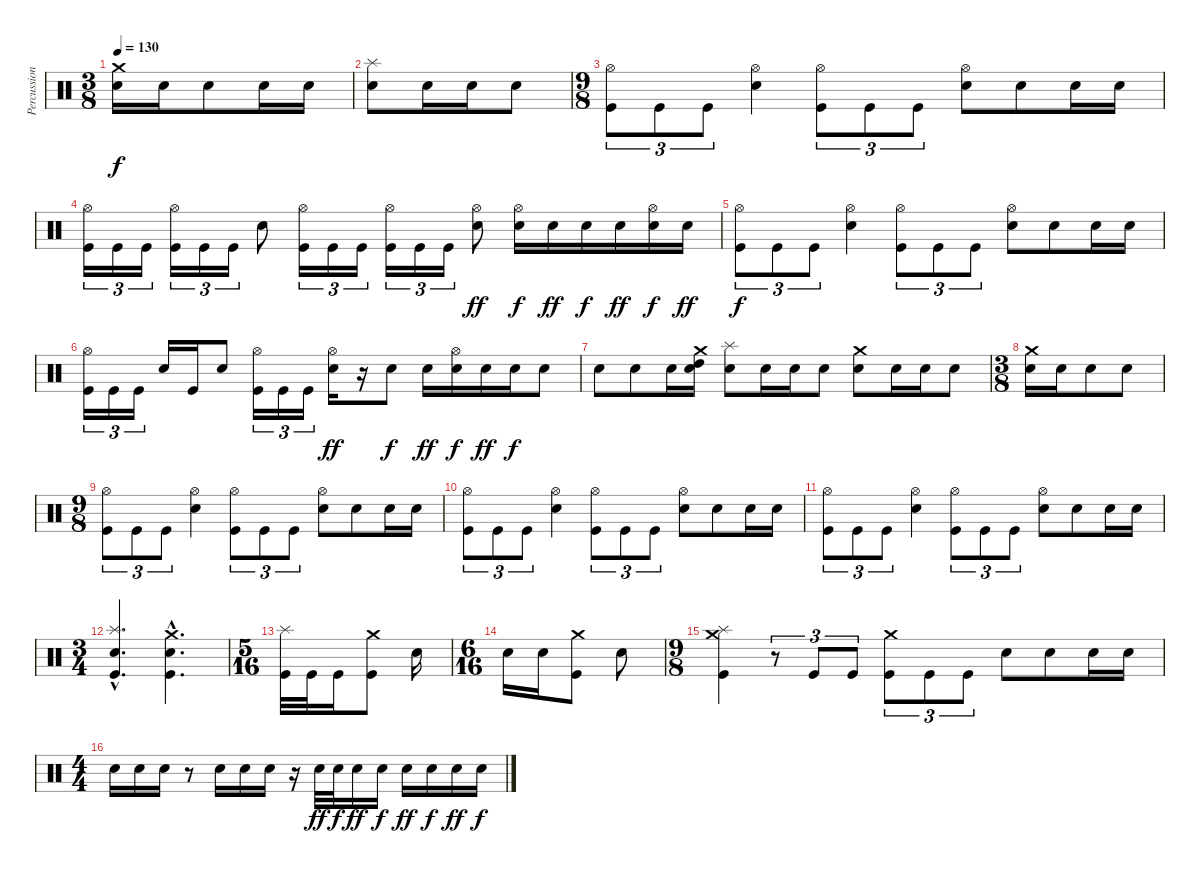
\track ("Percussioni" "Percussion") {instrument percussion}
\staff {score}
\articulation defaults
\ts (3 8)
\tempo 130
\clef neutral
\ks c
("Crash medium (hit)" "Snare (hit) 2").16{dy f} "Snare (hit) 2".16 "Snare (hit) 2".8 "Snare (hit) 2".16 "Snare (hit) 2".16 |
("Splash (hit)" "Snare (hit) 2").8 "Snare (hit) 2".16 "Snare (hit) 2".16 "Snare (hit) 2".8 |
\ts (9 8)
("Hi-Hat (open)" "Kick (hit)").8{tu (3 2)} "Kick (hit)".8{tu (3 2)} "Kick (hit)".8{tu (3 2)} ("Hi-Hat (open)" "Snare (hit) 2").4 ("Hi-Hat (open)" "Kick (hit)").8{tu (3 2)} "Kick (hit)".8{tu (3 2)} "Kick (hit)".8{tu (3 2)} ("Hi-Hat (open)" "Snare (hit) 2").8 "Snare (hit) 2".8 "Snare (hit) 2".16 "Snare (hit) 2".16 |
("Hi-Hat (open)" "Kick (hit)").16{tu (3 2)} "Kick (hit)".16{tu (3 2)} "Kick (hit)".16{tu (3 2)} ("Hi-Hat (open)" "Kick (hit)").16{tu (3 2)} "Kick (hit)".16{tu (3 2)} "Kick (hit)".16{tu (3 2)} "Snare (hit) 2".8 ("Hi-Hat (open)" "Kick (hit)").16{tu (3 2)} "Kick (hit)".16{tu (3 2)} "Kick (hit)".16{tu (3 2)} ("Hi-Hat (open)" "Kick (hit)").16{tu (3 2)} "Kick (hit)".16{tu (3 2)} "Kick (hit)".16{tu (3 2)} ("Hi-Hat (open)" "Snare (hit) 2").8{dy ff} ("Hi-Hat (open)" "Snare (hit) 2").16{dy f} "Snare (hit) 2".16{dy ff} "Snare (hit) 2".16{dy f} "Snare (hit) 2".16{dy ff} ("Hi-Hat (open)" "Snare (hit) 2").16{dy f} "Snare (hit) 2".16{dy ff} |
("Hi-Hat (open)" "Kick (hit)").8{tu (3 2) dy f} "Kick (hit)".8{tu (3 2)} "Kick (hit)".8{tu (3 2)} ("Hi-Hat (open)" "Snare (hit) 2").4 ("Hi-Hat (open)" "Kick (hit)").8{tu (3 2)} "Kick (hit)".8{tu (3 2)} "Kick (hit)".8{tu (3 2)} ("Hi-Hat (open)" "Snare (hit) 2").8 "Snare (hit) 2".8 "Snare (hit) 2".16 "Snare (hit) 2".16 |
("Hi-Hat (open)" "Kick (hit)").16{tu (3 2)} "Kick (hit)".16{tu (3 2)} "Kick (hit)".16{tu (3 2)} "Snare (hit) 2".16 "Kick (hit)".16 "Snare (hit) 2".8 ("Hi-Hat (open)" "Kick (hit)").16{tu (3 2)} "Kick (hit)".16{tu (3 2)} "Kick (hit)".16{tu (3 2)} ("Hi-Hat (open)" "Snare (hit) 2").16{dy ff} r.16 "Snare (hit) 2".8{dy f} "Snare (hit) 2".16{dy ff} ("Hi-Hat (open)" "Snare (hit) 2").16{dy f} "Snare (hit) 2".16{dy ff} "Snare (hit) 2".16{dy f} "Snare (hit) 2".8 |
"Snare (hit) 2".8 "Snare (hit) 2".8 "Snare (hit) 2".16 ("Crash medium (hit)" "High Tom (hit)" "Snare (hit) 2").16 ("Splash (hit)" "Snare (hit) 2").8 "Snare (hit) 2".16 "Snare (hit) 2".16 "Snare (hit) 2".8 ("Crash medium (hit)" "Snare (hit) 2").8 "Snare (hit) 2".16 "Snare (hit) 2".16 "Snare (hit) 2".8 |
\ts (3 8)
("Crash medium (hit)" "Snare (hit) 2").16 "Snare (hit) 2".16 "Snare (hit) 2".8 "Snare (hit) 2".8 |
\ts (9 8)
("Hi-Hat (open)" "Kick (hit)").8{tu (3 2)} "Kick (hit)".8{tu (3 2)} "Kick (hit)".8{tu (3 2)} ("Hi-Hat (open)" "Snare (hit) 2").4 ("Hi-Hat (open)" "Kick (hit)").8{tu (3 2)} "Kick (hit)".8{tu (3 2)} "Kick (hit)".8{tu (3 2)} ("Hi-Hat (open)" "Snare (hit) 2").8 "Snare (hit) 2".8 "Snare (hit) 2".16 "Snare (hit) 2".16 |
("Hi-Hat (open)" "Kick (hit)").8{tu (3 2)} "Kick (hit)".8{tu (3 2)} "Kick (hit)".8{tu (3 2)} ("Hi-Hat (open)" "Snare (hit) 2").4 ("Hi-Hat (open)" "Kick (hit)").8{tu (3 2)} "Kick (hit)".8{tu (3 2)} "Kick (hit)".8{tu (3 2)} ("Hi-Hat (open)" "Snare (hit) 2").8 "Snare (hit) 2".8 "Snare (hit) 2".16 "Snare (hit) 2".16 |
("Hi-Hat (open)" "Kick (hit)").8{tu (3 2)} "Kick (hit)".8{tu (3 2)} "Kick (hit)".8{tu (3 2)} ("Hi-Hat (open)" "Snare (hit) 2").4 ("Hi-Hat (open)" "Kick (hit)").8{tu (3 2)} "Kick (hit)".8{tu (3 2)} "Kick (hit)".8{tu (3 2)} ("Hi-Hat (open)" "Snare (hit) 2").8 "Snare (hit) 2".8 "Snare (hit) 2".16 "Snare (hit) 2".16 |
\ts (3 4)
("Splash (hit)"{hac} "Snare (hit) 2"{hac} "Kick (hit)"{hac}).4{d} ("Crash medium (hit)"{hac} "Snare (hit) 2"{hac} "Kick (hit)"{hac}).4{d} |
\ts (5 16)
("Splash (hit)" "Kick (hit)").32 "Kick (hit)".32 "Kick (hit)".16 ("Crash medium (hit)" "Kick (hit)").8 "Snare (hit) 2".16 |
\ts (6 16)
"Snare (hit) 2".16 "Snare (hit) 2".16 ("Crash medium (hit)" "Kick (hit)").8 "Snare (hit) 2".8 |
\ts (9 8)
("Crash medium (hit)" "Splash (hit)" "Kick (hit)").4 r.8{tu (3 2)} "Kick (hit)".8{tu (3 2)} "Kick (hit)".8{tu (3 2)} ("Crash medium (hit)" "Kick (hit)").8{tu (3 2)} "Kick (hit)".8{tu (3 2)} "Kick (hit)".8{tu (3 2)} "Snare (hit) 2".8 "Snare (hit) 2".8 "Snare (hit) 2".16 "Snare (hit) 2".16 |
\ts (4 4)
"Snare (hit) 2".16 "Snare (hit) 2".16 "Snare (hit) 2".16 r.8 "Snare (hit) 2".16 "Snare (hit) 2".16 "Snare (hit) 2".16 r.16 "Snare (hit) 2".32{dy ff} "Snare (hit) 2".32{dy f} "Snare (hit) 2".16{dy ff} "Snare (hit) 2".16{dy f} "Snare (hit) 2".16{dy ff} "Snare (hit) 2".16{dy f} "Snare (hit) 2".16{dy ff} "Snare (hit) 2".16{dy f}
